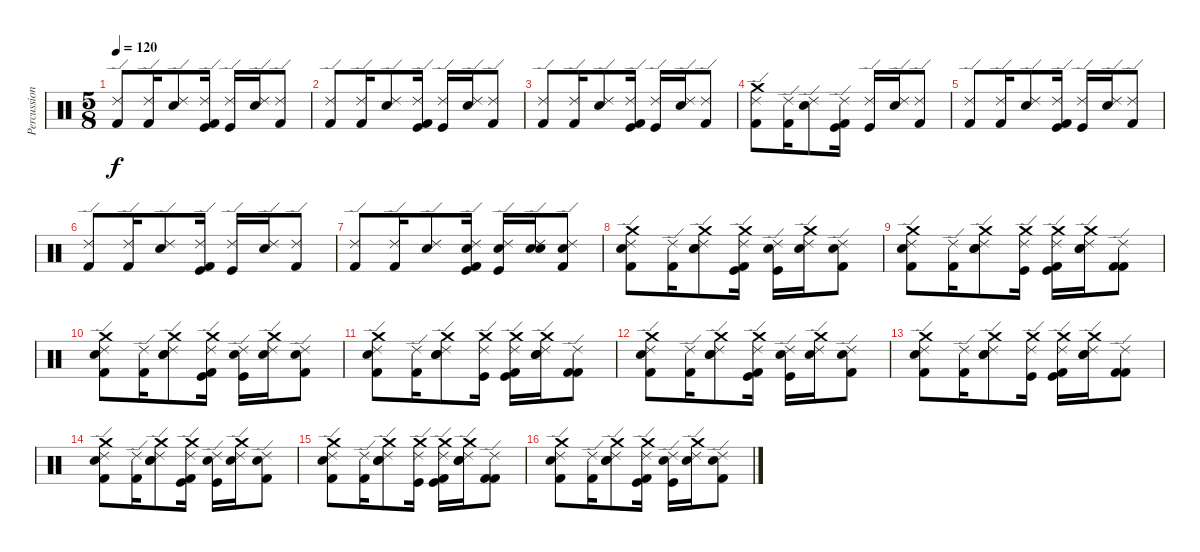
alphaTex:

\track ("Percussion" "Percussion") {instrument percussion}
\staff {score}
\articulation defaults
\ts (5 8)
\tempo 120
\clef neutral
\ks c
("Kick (hit) 2" "Ride (edge) 2").8{dy f} ("Kick (hit) 2" "Ride (edge) 2").16 ("Electric Snare (hit)" "Ride (edge) 2").8 ("Kick (hit) 2" "Kick (hit)" "Ride (edge) 2").16 ("Kick (hit)" "Ride (edge) 2").16 ("Electric Snare (hit)" "Ride (edge) 2").16 ("Kick (hit) 2" "Ride (edge) 2").8 |
("Kick (hit) 2" "Ride (edge) 2").8 ("Kick (hit) 2" "Ride (edge) 2").16 ("Electric Snare (hit)" "Ride (edge) 2").8 ("Kick (hit) 2" "Kick (hit)" "Ride (edge) 2").16 ("Kick (hit)" "Ride (edge) 2").16 ("Electric Snare (hit)" "Ride (edge) 2").16 ("Kick (hit) 2" "Ride (edge) 2").8 |
("Kick (hit) 2" "Ride (edge) 2").8 ("Kick (hit) 2" "Ride (edge) 2").16 ("Electric Snare (hit)" "Ride (edge) 2").8 ("Kick (hit) 2" "Kick (hit)" "Ride (edge) 2").16 ("Kick (hit)" "Ride (edge) 2").16 ("Electric Snare (hit)" "Ride (edge) 2").16 ("Kick (hit) 2" "Ride (edge) 2").8 |
("Kick (hit) 2" "Crash medium (hit)" "Ride (edge) 2").8 ("Kick (hit) 2" "Ride (edge) 2").16 ("Electric Snare (hit)" "Ride (edge) 2").8 ("Kick (hit) 2" "Kick (hit)" "Ride (edge) 2").16 ("Kick (hit)" "Ride (edge) 2").16 ("Electric Snare (hit)" "Ride (edge) 2").16 ("Kick (hit) 2" "Ride (edge) 2").8 |
("Kick (hit) 2" "Ride (edge) 2").8 ("Kick (hit) 2" "Ride (edge) 2").16 ("Electric Snare (hit)" "Ride (edge) 2").8 ("Kick (hit) 2" "Kick (hit)" "Ride (edge) 2").16 ("Kick (hit)" "Ride (edge) 2").16 ("Electric Snare (hit)" "Ride (edge) 2").16 ("Kick (hit) 2" "Ride (edge) 2").8 |
("Kick (hit) 2" "Ride (edge) 2").8 ("Kick (hit) 2" "Ride (edge) 2").16 ("Electric Snare (hit)" "Ride (edge) 2").8 ("Kick (hit) 2" "Kick (hit)" "Ride (edge) 2").16 ("Kick (hit)" "Ride (edge) 2").16 ("Electric Snare (hit)" "Ride (edge) 2").16 ("Kick (hit) 2" "Ride (edge) 2").8 |
("Kick (hit) 2" "Ride (edge) 2").8 ("Kick (hit) 2" "Ride (edge) 2").16 ("Electric Snare (hit)" "Ride (edge) 2").8 ("Electric Snare (hit)" "Kick (hit) 2" "Kick (hit)" "Ride (edge) 2").16 ("Electric Snare (hit)" "Kick (hit)" "Ride (edge) 2").16 ("Electric Snare (hit)" "Electric Snare (hit)" "Ride (edge) 2").16 ("Electric Snare (hit)" "Kick (hit) 2" "Ride (edge) 2").8 |
("Electric Snare (hit)" "Kick (hit) 2" "Crash medium (hit)" "Ride (edge) 2").8 ("Kick (hit) 2" "Ride (edge) 2").16 ("Electric Snare (hit)" "Crash medium (hit)" "Electric Snare (hit)" "Ride (edge) 2").8 ("Crash medium (hit)" "Kick (hit) 2" "Kick (hit)" "Ride (edge) 2").16 ("Electric Snare (hit)" "Kick (hit)" "Ride (edge) 2").16 ("Crash medium (hit)" "Electric Snare (hit)" "Ride (edge) 2").16 ("Electric Snare (hit)" "Kick (hit) 2" "Ride (edge) 2").8 |
("Electric Snare (hit)" "Kick (hit) 2" "Crash medium (hit)" "Ride (edge) 2").8 ("Kick (hit) 2" "Ride (edge) 2").16 ("Electric Snare (hit)" "Crash medium (hit)" "Electric Snare (hit)" "Ride (edge) 2").8 ("Crash medium (hit)" "Kick (hit)" "Ride (edge) 2").16 ("Crash medium (hit)" "Kick (hit) 2" "Kick (hit)" "Ride (edge) 2").16 ("Electric Snare (hit)" "Crash medium (hit)" "Electric Snare (hit)" "Ride (edge) 2").16 ("Kick (hit) 2" "Kick (hit) 2" "Ride (edge) 2").8 |
("Electric Snare (hit)" "Kick (hit) 2" "Crash medium (hit)" "Ride (edge) 2").8 ("Kick (hit) 2" "Ride (edge) 2").16 ("Electric Snare (hit)" "Crash medium (hit)" "Electric Snare (hit)" "Ride (edge) 2").8 ("Crash medium (hit)" "Kick (hit) 2" "Kick (hit)" "Ride (edge) 2").16 ("Electric Snare (hit)" "Kick (hit)" "Ride (edge) 2").16 ("Crash medium (hit)" "Electric Snare (hit)" "Ride (edge) 2").16 ("Electric Snare (hit)" "Kick (hit) 2" "Ride (edge) 2").8 |
("Electric Snare (hit)" "Kick (hit) 2" "Crash medium (hit)" "Ride (edge) 2").8 ("Kick (hit) 2" "Ride (edge) 2").16 ("Electric Snare (hit)" "Crash medium (hit)" "Electric Snare (hit)" "Ride (edge) 2").8 ("Crash medium (hit)" "Kick (hit)" "Ride (edge) 2").16 ("Crash medium (hit)" "Kick (hit) 2" "Kick (hit)" "Ride (edge) 2").16 ("Electric Snare (hit)" "Crash medium (hit)" "Electric Snare (hit)" "Ride (edge) 2").16 ("Kick (hit) 2" "Kick (hit) 2" "Ride (edge) 2").8 |
("Electric Snare (hit)" "Kick (hit) 2" "Crash medium (hit)" "Ride (edge) 2").8 ("Kick (hit) 2" "Ride (edge) 2").16 ("Electric Snare (hit)" "Crash medium (hit)" "Electric Snare (hit)" "Ride (edge) 2").8 ("Crash medium (hit)" "Kick (hit) 2" "Kick (hit)" "Ride (edge) 2").16 ("Electric Snare (hit)" "Kick (hit)" "Ride (edge) 2").16 ("Crash medium (hit)" "Electric Snare (hit)" "Ride (edge) 2").16 ("Electric Snare (hit)" "Kick (hit) 2" "Ride (edge) 2").8 |
("Electric Snare (hit)" "Kick (hit) 2" "Crash medium (hit)" "Ride (edge) 2").8 ("Kick (hit) 2" "Ride (edge) 2").16 ("Electric Snare (hit)" "Crash medium (hit)" "Electric Snare (hit)" "Ride (edge) 2").8 ("Crash medium (hit)" "Kick (hit)" "Ride (edge) 2").16 ("Crash medium (hit)" "Kick (hit) 2" "Kick (hit)" "Ride (edge) 2").16 ("Electric Snare (hit)" "Crash medium (hit)" "Electric Snare (hit)" "Ride (edge) 2").16 ("Kick (hit) 2" "Kick (hit) 2" "Ride (edge) 2").8 |
("Electric Snare (hit)" "Kick (hit) 2" "Crash medium (hit)" "Ride (edge) 2").8 ("Kick (hit) 2" "Ride (edge) 2").16 ("Electric Snare (hit)" "Crash medium (hit)" "Electric Snare (hit)" "Ride (edge) 2").8 ("Crash medium (hit)" "Kick (hit) 2" "Kick (hit)" "Ride (edge) 2").16 ("Electric Snare (hit)" "Kick (hit)" "Ride (edge) 2").16 ("Crash medium (hit)" "Electric Snare (hit)" "Ride (edge) 2").16 ("Electric Snare (hit)" "Kick (hit) 2" "Ride (edge) 2").8 |
("Electric Snare (hit)" "Kick (hit) 2" "Crash medium (hit)" "Ride (edge) 2").8 ("Kick (hit) 2" "Ride (edge) 2").16 ("Electric Snare (hit)" "Crash medium (hit)" "Electric Snare (hit)" "Ride (edge) 2").8 ("Crash medium (hit)" "Kick (hit)" "Ride (edge) 2").16 ("Crash medium (hit)" "Kick (hit) 2" "Kick (hit)" "Ride (edge) 2").16 ("Electric Snare (hit)" "Crash medium (hit)" "Electric Snare (hit)" "Ride (edge) 2").16 ("Kick (hit) 2" "Kick (hit) 2" "Ride (edge) 2").8 |
("Electric Snare (hit)" "Kick (hit) 2" "Crash medium (hit)" "Ride (edge) 2").8 ("Kick (hit) 2" "Ride (edge) 2").16 ("Electric Snare (hit)" "Crash medium (hit)" "Electric Snare (hit)" "Ride (edge) 2").8 ("Crash medium (hit)" "Kick (hit) 2" "Kick (hit)" "Ride (edge) 2").16 ("Electric Snare (hit)" "Kick (hit)" "Ride (edge) 2").16 ("Crash medium (hit)" "Electric Snare (hit)" "Ride (edge) 2").16 ("Electric Snare (hit)" "Kick (hit) 2" "Ride (edge) 2").8
